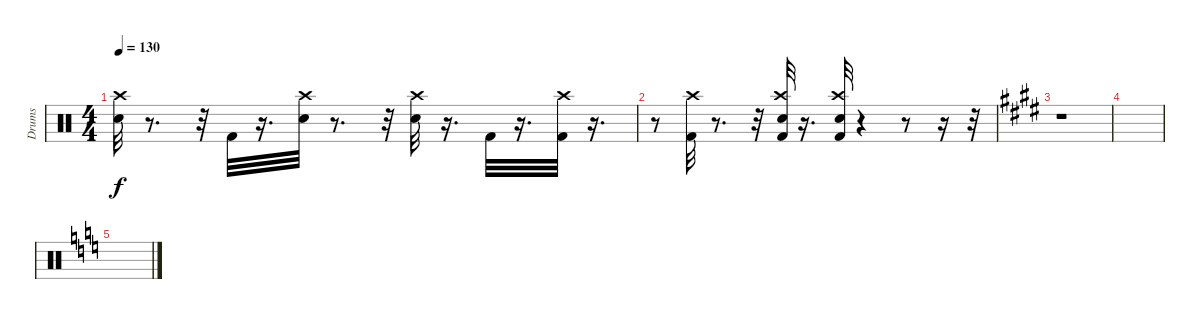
\track ("Drums" "Drums") {instrument percussion}
\staff {score}
\articulation defaults
\ts (4 4)
\tempo 130
\clef neutral
\ks c
("Snare (hit) 2" "Crash high (hit)").32{dy f} r.8{d} r.32 "Kick (hit) 2".32 r.16{d} ("Snare (hit) 2" "Crash high (hit)").32 r.8{d} r.32 ("Snare (hit) 2" "Crash high (hit)").32 r.16{d} "Kick (hit) 2".32 r.16{d} ("Crash high (hit)" "Kick (hit) 2").32 r.16{d} |
r.8 ("Kick (hit) 2" "Crash high (hit)").32 r.8{d} r.32 ("Snare (hit) 2" "Crash high (hit)" "Kick (hit) 2").32 r.16{d} ("Kick (hit) 2" "Snare (hit) 2" "Crash high (hit)").32 r.4 r.8 r.16 r.32 |
\ks e
r.1 |
|
\ks c
